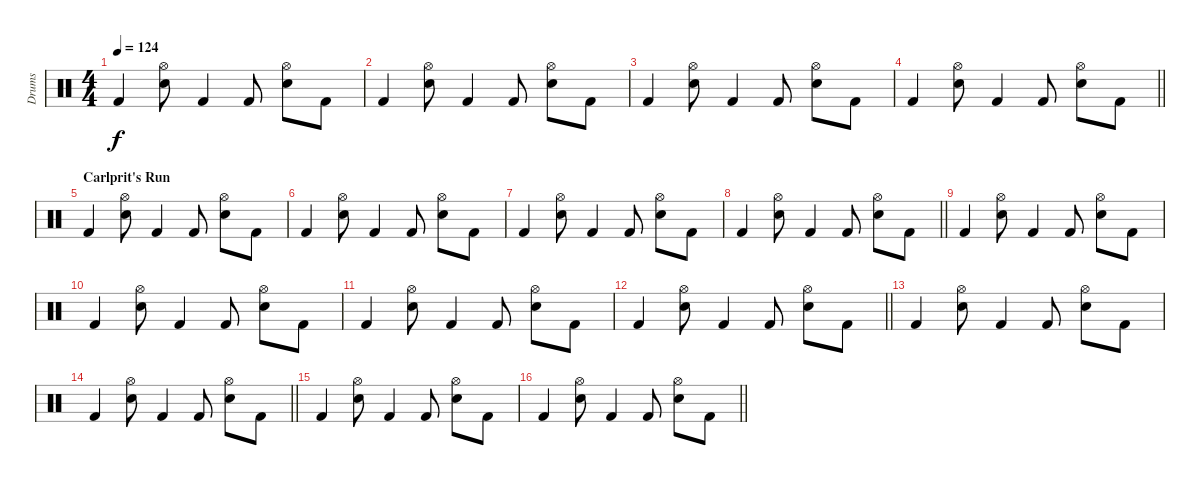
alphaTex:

\track ("Drums" "Drums") {instrument percussion}
\staff {score}
\articulation defaults
\ts (4 4)
\tempo 124
\clef neutral
\ks c "Kick (hit) 2".4{dy f}
("Hi-Hat (open)" "Snare (hit) 2").8 "Kick (hit) 2".4 "Kick (hit) 2".8 ("Hi-Hat (open)" "Snare (hit) 2").8 "Kick (hit) 2".8 |
"Kick (hit) 2".4 ("Hi-Hat (open)" "Snare (hit) 2").8 "Kick (hit) 2".4 "Kick (hit) 2".8 ("Hi-Hat (open)" "Snare (hit) 2").8 "Kick (hit) 2".8 |
"Kick (hit) 2".4 ("Hi-Hat (open)" "Snare (hit) 2").8 "Kick (hit) 2".4 "Kick (hit) 2".8 ("Hi-Hat (open)" "Snare (hit) 2").8 "Kick (hit) 2".8 |
\barLineRight lightlight "Kick (hit) 2".4
("Hi-Hat (open)" "Snare (hit) 2").8 "Kick (hit) 2".4 "Kick (hit) 2".8 ("Hi-Hat (open)" "Snare (hit) 2").8 "Kick (hit) 2".8 |
\section ("" "Carlprit's Run")
"Kick (hit) 2".4 ("Hi-Hat (open)" "Snare (hit) 2").8 "Kick (hit) 2".4 "Kick (hit) 2".8 ("Hi-Hat (open)" "Snare (hit) 2").8 "Kick (hit) 2".8 |
"Kick (hit) 2".4 ("Hi-Hat (open)" "Snare (hit) 2").8 "Kick (hit) 2".4 "Kick (hit) 2".8 ("Hi-Hat (open)" "Snare (hit) 2").8 "Kick (hit) 2".8 |
"Kick (hit) 2".4 ("Hi-Hat (open)" "Snare (hit) 2").8 "Kick (hit) 2".4 "Kick (hit) 2".8 ("Hi-Hat (open)" "Snare (hit) 2").8 "Kick (hit) 2".8 |
\barLineRight lightlight "Kick (hit) 2".4
("Hi-Hat (open)" "Snare (hit) 2").8 "Kick (hit) 2".4 "Kick (hit) 2".8 ("Hi-Hat (open)" "Snare (hit) 2").8 "Kick (hit) 2".8 |
"Kick (hit) 2".4 ("Hi-Hat (open)" "Snare (hit) 2").8 "Kick (hit) 2".4 "Kick (hit) 2".8 ("Hi-Hat (open)" "Snare (hit) 2").8 "Kick (hit) 2".8 |
"Kick (hit) 2".4 ("Hi-Hat (open)" "Snare (hit) 2").8 "Kick (hit) 2".4 "Kick (hit) 2".8 ("Hi-Hat (open)" "Snare (hit) 2").8 "Kick (hit) 2".8 |
"Kick (hit) 2".4 ("Hi-Hat (open)" "Snare (hit) 2").8 "Kick (hit) 2".4 "Kick (hit) 2".8 ("Hi-Hat (open)" "Snare (hit) 2").8 "Kick (hit) 2".8 |
\barLineRight lightlight "Kick (hit) 2".4
("Hi-Hat (open)" "Snare (hit) 2").8 "Kick (hit) 2".4 "Kick (hit) 2".8 ("Hi-Hat (open)" "Snare (hit) 2").8 "Kick (hit) 2".8 |
"Kick (hit) 2".4 ("Hi-Hat (open)" "Snare (hit) 2").8 "Kick (hit) 2".4 "Kick (hit) 2".8 ("Hi-Hat (open)" "Snare (hit) 2").8 "Kick (hit) 2".8 |
\barLineRight lightlight "Kick (hit) 2".4
("Hi-Hat (open)" "Snare (hit) 2").8 "Kick (hit) 2".4 "Kick (hit) 2".8 ("Hi-Hat (open)" "Snare (hit) 2").8 "Kick (hit) 2".8 |
"Kick (hit) 2".4 ("Hi-Hat (open)" "Snare (hit) 2").8 "Kick (hit) 2".4 "Kick (hit) 2".8 ("Hi-Hat (open)" "Snare (hit) 2").8 "Kick (hit) 2".8 |
\barLineRight lightlight "Kick (hit) 2".4
("Hi-Hat (open)" "Snare (hit) 2").8 "Kick (hit) 2".4 "Kick (hit) 2".8 ("Hi-Hat (open)" "Snare (hit) 2").8 "Kick (hit) 2".8
